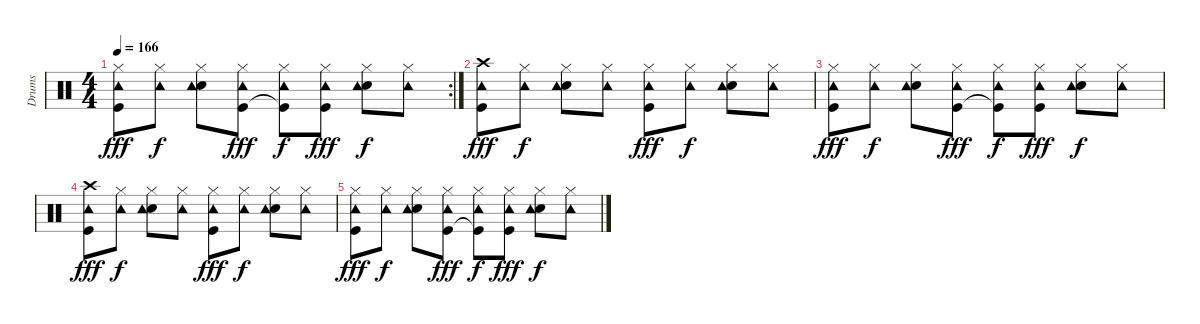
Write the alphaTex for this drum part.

\track ("Drums" "Drums") {instrument percussion}
\staff {score}
\articulation defaults
\rc 2
\ts (4 4)
\tempo 166
\clef neutral
\ks c
("Hi-Hat (closed)" "Tambourine (hit)" "Kick (hit)").8{dy fff} ("Hi-Hat (closed)" "Tambourine (hit)").8{dy f} ("Hi-Hat (closed)" "Snare (hit) 2" "Tambourine (hit)").8 ("Hi-Hat (closed)" "Tambourine (hit)" "Kick (hit)").8{dy fff} ("Hi-Hat (closed)" "Tambourine (hit)" "Kick (hit)"{t}).8{dy f} ("Hi-Hat (closed)" "Tambourine (hit)" "Kick (hit)").8{dy fff} ("Hi-Hat (closed)" "Snare (hit) 2" "Tambourine (hit)").8{dy f} ("Hi-Hat (closed)" "Tambourine (hit)").8 |
("Crash high (hit)" "Tambourine (hit)" "Kick (hit)").8{dy fff} ("Hi-Hat (closed)" "Tambourine (hit)").8{dy f} ("Hi-Hat (closed)" "Snare (hit) 2" "Tambourine (hit)").8 ("Hi-Hat (closed)" "Tambourine (hit)").8 ("Hi-Hat (closed)" "Tambourine (hit)" "Kick (hit)").8{dy fff} ("Hi-Hat (closed)" "Tambourine (hit)").8{dy f} ("Hi-Hat (closed)" "Snare (hit) 2" "Tambourine (hit)").8 ("Hi-Hat (closed)" "Tambourine (hit)").8 |
("Hi-Hat (closed)" "Tambourine (hit)" "Kick (hit)").8{dy fff} ("Hi-Hat (closed)" "Tambourine (hit)").8{dy f} ("Hi-Hat (closed)" "Snare (hit) 2" "Tambourine (hit)").8 ("Hi-Hat (closed)" "Tambourine (hit)" "Kick (hit)").8{dy fff} ("Hi-Hat (closed)" "Tambourine (hit)" "Kick (hit)"{t}).8{dy f} ("Hi-Hat (closed)" "Tambourine (hit)" "Kick (hit)").8{dy fff} ("Hi-Hat (closed)" "Snare (hit) 2" "Tambourine (hit)").8{dy f} ("Hi-Hat (closed)" "Tambourine (hit)").8 |
("Crash high (hit)" "Tambourine (hit)" "Kick (hit)").8{dy fff} ("Hi-Hat (closed)" "Tambourine (hit)").8{dy f} ("Hi-Hat (closed)" "Snare (hit) 2" "Tambourine (hit)").8 ("Hi-Hat (closed)" "Tambourine (hit)").8 ("Hi-Hat (closed)" "Tambourine (hit)" "Kick (hit)").8{dy fff} ("Hi-Hat (closed)" "Tambourine (hit)").8{dy f} ("Hi-Hat (closed)" "Snare (hit) 2" "Tambourine (hit)").8 ("Hi-Hat (closed)" "Tambourine (hit)").8 |
("Hi-Hat (closed)" "Tambourine (hit)" "Kick (hit)").8{dy fff} ("Hi-Hat (closed)" "Tambourine (hit)").8{dy f} ("Hi-Hat (closed)" "Snare (hit) 2" "Tambourine (hit)").8 ("Hi-Hat (closed)" "Tambourine (hit)" "Kick (hit)").8{dy fff} ("Hi-Hat (closed)" "Tambourine (hit)" "Kick (hit)"{t}).8{dy f} ("Hi-Hat (closed)" "Tambourine (hit)" "Kick (hit)").8{dy fff} ("Hi-Hat (closed)" "Snare (hit) 2" "Tambourine (hit)").8{dy f} ("Hi-Hat (closed)" "Tambourine (hit)").8
